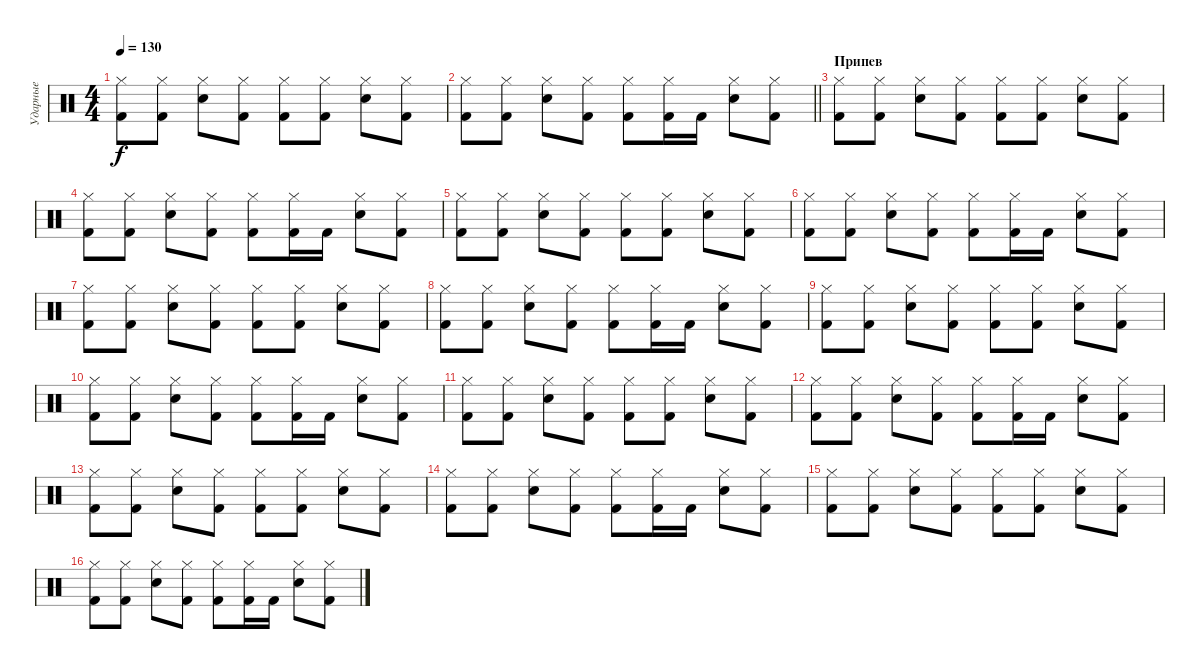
\track ("Ударные" "Ударные") {instrument percussion}
\staff {score}
\articulation defaults
\ts (4 4)
\tempo 130
\clef neutral
\ks c
("Hi-Hat (closed)" "Kick (hit) 2").8{dy f} ("Hi-Hat (closed)" "Kick (hit) 2").8 ("Hi-Hat (closed)" "Snare (hit) 2").8 ("Hi-Hat (closed)" "Kick (hit) 2").8 ("Hi-Hat (closed)" "Kick (hit) 2").8 ("Hi-Hat (closed)" "Kick (hit) 2").8 ("Hi-Hat (closed)" "Snare (hit) 2").8 ("Hi-Hat (closed)" "Kick (hit) 2").8 |
\barLineRight lightlight
("Hi-Hat (closed)" "Kick (hit) 2").8 ("Hi-Hat (closed)" "Kick (hit) 2").8 ("Hi-Hat (closed)" "Snare (hit) 2").8 ("Hi-Hat (closed)" "Kick (hit) 2").8 ("Hi-Hat (closed)" "Kick (hit) 2").8 ("Hi-Hat (closed)" "Kick (hit) 2").16 "Kick (hit) 2".16 ("Hi-Hat (closed)" "Snare (hit) 2").8 ("Hi-Hat (closed)" "Kick (hit) 2").8 |
\section ("" "Припев")
("Hi-Hat (closed)" "Kick (hit) 2").8 ("Hi-Hat (closed)" "Kick (hit) 2").8 ("Hi-Hat (closed)" "Snare (hit) 2").8 ("Hi-Hat (closed)" "Kick (hit) 2").8 ("Hi-Hat (closed)" "Kick (hit) 2").8 ("Hi-Hat (closed)" "Kick (hit) 2").8 ("Hi-Hat (closed)" "Snare (hit) 2").8 ("Hi-Hat (closed)" "Kick (hit) 2").8 |
("Hi-Hat (closed)" "Kick (hit) 2").8 ("Hi-Hat (closed)" "Kick (hit) 2").8 ("Hi-Hat (closed)" "Snare (hit) 2").8 ("Hi-Hat (closed)" "Kick (hit) 2").8 ("Hi-Hat (closed)" "Kick (hit) 2").8 ("Hi-Hat (closed)" "Kick (hit) 2").16 "Kick (hit) 2".16 ("Hi-Hat (closed)" "Snare (hit) 2").8 ("Hi-Hat (closed)" "Kick (hit) 2").8 |
("Hi-Hat (closed)" "Kick (hit) 2").8 ("Hi-Hat (closed)" "Kick (hit) 2").8 ("Hi-Hat (closed)" "Snare (hit) 2").8 ("Hi-Hat (closed)" "Kick (hit) 2").8 ("Hi-Hat (closed)" "Kick (hit) 2").8 ("Hi-Hat (closed)" "Kick (hit) 2").8 ("Hi-Hat (closed)" "Snare (hit) 2").8 ("Hi-Hat (closed)" "Kick (hit) 2").8 |
("Hi-Hat (closed)" "Kick (hit) 2").8 ("Hi-Hat (closed)" "Kick (hit) 2").8 ("Hi-Hat (closed)" "Snare (hit) 2").8 ("Hi-Hat (closed)" "Kick (hit) 2").8 ("Hi-Hat (closed)" "Kick (hit) 2").8 ("Hi-Hat (closed)" "Kick (hit) 2").16 "Kick (hit) 2".16 ("Hi-Hat (closed)" "Snare (hit) 2").8 ("Hi-Hat (closed)" "Kick (hit) 2").8 |
("Hi-Hat (closed)" "Kick (hit) 2").8 ("Hi-Hat (closed)" "Kick (hit) 2").8 ("Hi-Hat (closed)" "Snare (hit) 2").8 ("Hi-Hat (closed)" "Kick (hit) 2").8 ("Hi-Hat (closed)" "Kick (hit) 2").8 ("Hi-Hat (closed)" "Kick (hit) 2").8 ("Hi-Hat (closed)" "Snare (hit) 2").8 ("Hi-Hat (closed)" "Kick (hit) 2").8 |
("Hi-Hat (closed)" "Kick (hit) 2").8 ("Hi-Hat (closed)" "Kick (hit) 2").8 ("Hi-Hat (closed)" "Snare (hit) 2").8 ("Hi-Hat (closed)" "Kick (hit) 2").8 ("Hi-Hat (closed)" "Kick (hit) 2").8 ("Hi-Hat (closed)" "Kick (hit) 2").16 "Kick (hit) 2".16 ("Hi-Hat (closed)" "Snare (hit) 2").8 ("Hi-Hat (closed)" "Kick (hit) 2").8 |
("Hi-Hat (closed)" "Kick (hit) 2").8 ("Hi-Hat (closed)" "Kick (hit) 2").8 ("Hi-Hat (closed)" "Snare (hit) 2").8 ("Hi-Hat (closed)" "Kick (hit) 2").8 ("Hi-Hat (closed)" "Kick (hit) 2").8 ("Hi-Hat (closed)" "Kick (hit) 2").8 ("Hi-Hat (closed)" "Snare (hit) 2").8 ("Hi-Hat (closed)" "Kick (hit) 2").8 |
("Hi-Hat (closed)" "Kick (hit) 2").8 ("Hi-Hat (closed)" "Kick (hit) 2").8 ("Hi-Hat (closed)" "Snare (hit) 2").8 ("Hi-Hat (closed)" "Kick (hit) 2").8 ("Hi-Hat (closed)" "Kick (hit) 2").8 ("Hi-Hat (closed)" "Kick (hit) 2").16 "Kick (hit) 2".16 ("Hi-Hat (closed)" "Snare (hit) 2").8 ("Hi-Hat (closed)" "Kick (hit) 2").8 |
("Hi-Hat (closed)" "Kick (hit) 2").8 ("Hi-Hat (closed)" "Kick (hit) 2").8 ("Hi-Hat (closed)" "Snare (hit) 2").8 ("Hi-Hat (closed)" "Kick (hit) 2").8 ("Hi-Hat (closed)" "Kick (hit) 2").8 ("Hi-Hat (closed)" "Kick (hit) 2").8 ("Hi-Hat (closed)" "Snare (hit) 2").8 ("Hi-Hat (closed)" "Kick (hit) 2").8 |
("Hi-Hat (closed)" "Kick (hit) 2").8 ("Hi-Hat (closed)" "Kick (hit) 2").8 ("Hi-Hat (closed)" "Snare (hit) 2").8 ("Hi-Hat (closed)" "Kick (hit) 2").8 ("Hi-Hat (closed)" "Kick (hit) 2").8 ("Hi-Hat (closed)" "Kick (hit) 2").16 "Kick (hit) 2".16 ("Hi-Hat (closed)" "Snare (hit) 2").8 ("Hi-Hat (closed)" "Kick (hit) 2").8 |
("Hi-Hat (closed)" "Kick (hit) 2").8 ("Hi-Hat (closed)" "Kick (hit) 2").8 ("Hi-Hat (closed)" "Snare (hit) 2").8 ("Hi-Hat (closed)" "Kick (hit) 2").8 ("Hi-Hat (closed)" "Kick (hit) 2").8 ("Hi-Hat (closed)" "Kick (hit) 2").8 ("Hi-Hat (closed)" "Snare (hit) 2").8 ("Hi-Hat (closed)" "Kick (hit) 2").8 |
("Hi-Hat (closed)" "Kick (hit) 2").8 ("Hi-Hat (closed)" "Kick (hit) 2").8 ("Hi-Hat (closed)" "Snare (hit) 2").8 ("Hi-Hat (closed)" "Kick (hit) 2").8 ("Hi-Hat (closed)" "Kick (hit) 2").8 ("Hi-Hat (closed)" "Kick (hit) 2").16 "Kick (hit) 2".16 ("Hi-Hat (closed)" "Snare (hit) 2").8 ("Hi-Hat (closed)" "Kick (hit) 2").8 |
("Hi-Hat (closed)" "Kick (hit) 2").8 ("Hi-Hat (closed)" "Kick (hit) 2").8 ("Hi-Hat (closed)" "Snare (hit) 2").8 ("Hi-Hat (closed)" "Kick (hit) 2").8 ("Hi-Hat (closed)" "Kick (hit) 2").8 ("Hi-Hat (closed)" "Kick (hit) 2").8 ("Hi-Hat (closed)" "Snare (hit) 2").8 ("Hi-Hat (closed)" "Kick (hit) 2").8 |
("Hi-Hat (closed)" "Kick (hit) 2").8 ("Hi-Hat (closed)" "Kick (hit) 2").8 ("Hi-Hat (closed)" "Snare (hit) 2").8 ("Hi-Hat (closed)" "Kick (hit) 2").8 ("Hi-Hat (closed)" "Kick (hit) 2").8 ("Hi-Hat (closed)" "Kick (hit) 2").16 "Kick (hit) 2".16 ("Hi-Hat (closed)" "Snare (hit) 2").8 ("Hi-Hat (closed)" "Kick (hit) 2").8
